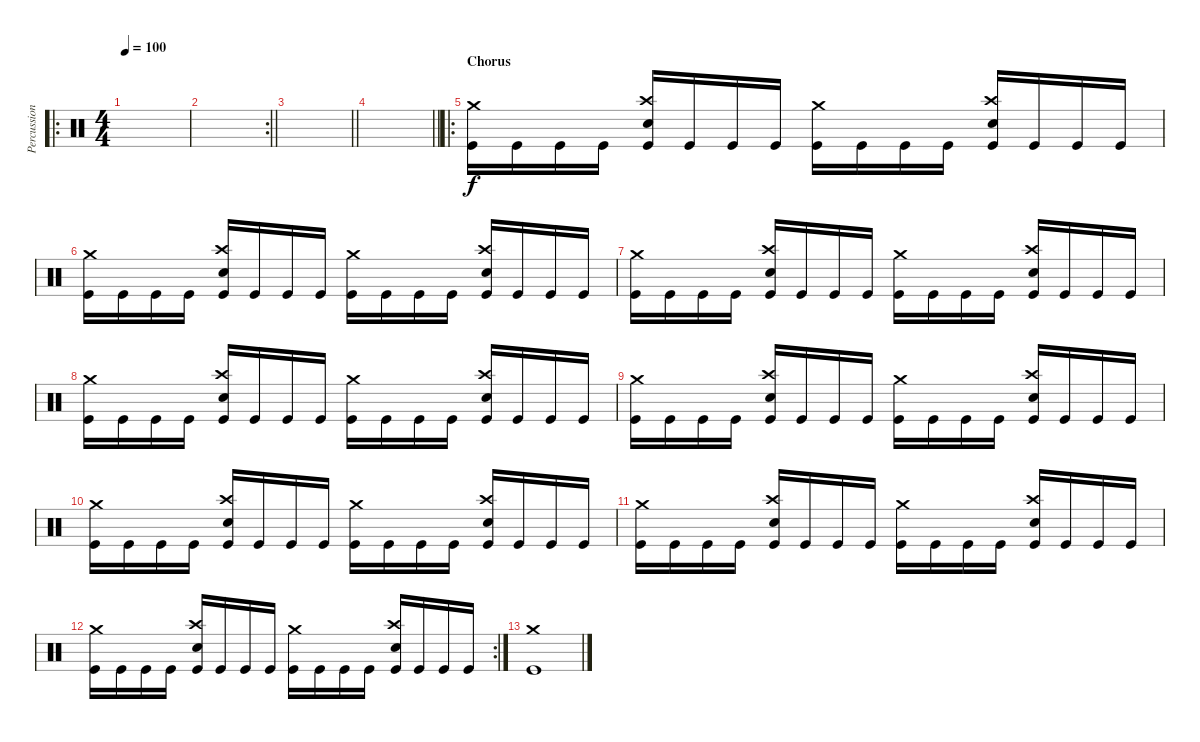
\track ("Percussion" "Percussion") {instrument percussion}
\staff {score}
\articulation defaults
\ro
\ts (4 4)
\tempo 100
\clef neutral
\ks c
|
\rc 2
\barLineRight lightlight
|
\barLineRight lightlight
|
\barLineRight lightlight
|
\ro
\section ("" "Chorus")
("Crash medium (hit)" "Kick (hit)").16{volume 13} "Kick (hit)".16 "Kick (hit)".16 "Kick (hit)".16 ("Crash high (hit)" "Snare (hit) 2" "Kick (hit)").16 "Kick (hit)".16 "Kick (hit)".16 "Kick (hit)".16 ("Crash medium (hit)" "Kick (hit)").16 "Kick (hit)".16 "Kick (hit)".16 "Kick (hit)".16 ("Crash high (hit)" "Snare (hit) 2" "Kick (hit)").16 "Kick (hit)".16 "Kick (hit)".16 "Kick (hit)".16 |
("Crash medium (hit)" "Kick (hit)").16 "Kick (hit)".16 "Kick (hit)".16 "Kick (hit)".16 ("Crash high (hit)" "Snare (hit) 2" "Kick (hit)").16 "Kick (hit)".16 "Kick (hit)".16 "Kick (hit)".16 ("Crash medium (hit)" "Kick (hit)").16 "Kick (hit)".16 "Kick (hit)".16 "Kick (hit)".16 ("Crash high (hit)" "Snare (hit) 2" "Kick (hit)").16 "Kick (hit)".16 "Kick (hit)".16 "Kick (hit)".16 |
("Crash medium (hit)" "Kick (hit)").16 "Kick (hit)".16 "Kick (hit)".16 "Kick (hit)".16 ("Crash high (hit)" "Snare (hit) 2" "Kick (hit)").16 "Kick (hit)".16 "Kick (hit)".16 "Kick (hit)".16 ("Crash medium (hit)" "Kick (hit)").16 "Kick (hit)".16 "Kick (hit)".16 "Kick (hit)".16 ("Crash high (hit)" "Snare (hit) 2" "Kick (hit)").16 "Kick (hit)".16 "Kick (hit)".16 "Kick (hit)".16 |
("Crash medium (hit)" "Kick (hit)").16 "Kick (hit)".16 "Kick (hit)".16 "Kick (hit)".16 ("Crash high (hit)" "Snare (hit) 2" "Kick (hit)").16 "Kick (hit)".16 "Kick (hit)".16 "Kick (hit)".16 ("Crash medium (hit)" "Kick (hit)").16 "Kick (hit)".16 "Kick (hit)".16 "Kick (hit)".16 ("Crash high (hit)" "Snare (hit) 2" "Kick (hit)").16 "Kick (hit)".16 "Kick (hit)".16 "Kick (hit)".16 |
("Crash medium (hit)" "Kick (hit)").16 "Kick (hit)".16 "Kick (hit)".16 "Kick (hit)".16 ("Crash high (hit)" "Snare (hit) 2" "Kick (hit)").16 "Kick (hit)".16 "Kick (hit)".16 "Kick (hit)".16 ("Crash medium (hit)" "Kick (hit)").16 "Kick (hit)".16 "Kick (hit)".16 "Kick (hit)".16 ("Crash high (hit)" "Snare (hit) 2" "Kick (hit)").16 "Kick (hit)".16 "Kick (hit)".16 "Kick (hit)".16 |
("Crash medium (hit)" "Kick (hit)").16 "Kick (hit)".16 "Kick (hit)".16 "Kick (hit)".16 ("Crash high (hit)" "Snare (hit) 2" "Kick (hit)").16 "Kick (hit)".16 "Kick (hit)".16 "Kick (hit)".16 ("Crash medium (hit)" "Kick (hit)").16 "Kick (hit)".16 "Kick (hit)".16 "Kick (hit)".16 ("Crash high (hit)" "Snare (hit) 2" "Kick (hit)").16 "Kick (hit)".16 "Kick (hit)".16 "Kick (hit)".16 |
("Crash medium (hit)" "Kick (hit)").16 "Kick (hit)".16 "Kick (hit)".16 "Kick (hit)".16 ("Crash high (hit)" "Snare (hit) 2" "Kick (hit)").16 "Kick (hit)".16 "Kick (hit)".16 "Kick (hit)".16 ("Crash medium (hit)" "Kick (hit)").16 "Kick (hit)".16 "Kick (hit)".16 "Kick (hit)".16 ("Crash high (hit)" "Snare (hit) 2" "Kick (hit)").16 "Kick (hit)".16 "Kick (hit)".16 "Kick (hit)".16 |
\rc 2
("Crash medium (hit)" "Kick (hit)").16 "Kick (hit)".16 "Kick (hit)".16 "Kick (hit)".16 ("Crash high (hit)" "Snare (hit) 2" "Kick (hit)").16 "Kick (hit)".16 "Kick (hit)".16 "Kick (hit)".16 ("Crash medium (hit)" "Kick (hit)").16 "Kick (hit)".16 "Kick (hit)".16 "Kick (hit)".16 ("Crash high (hit)" "Snare (hit) 2" "Kick (hit)").16 "Kick (hit)".16 "Kick (hit)".16 "Kick (hit)".16 |
("Crash medium (hit)" "Kick (hit)").1
